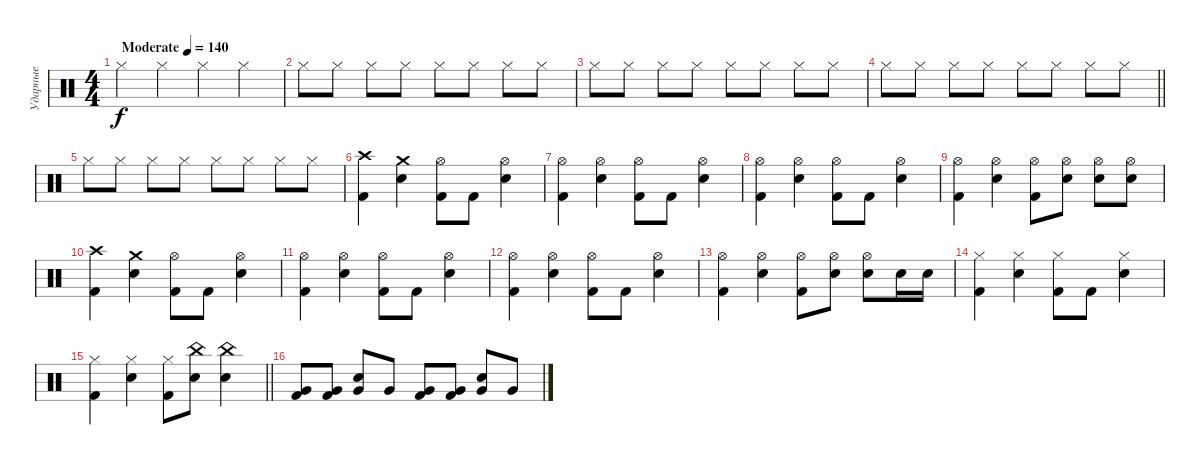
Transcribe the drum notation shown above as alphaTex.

\track ("Ударные" "Ударные") {instrument percussion}
\staff {score}
\articulation defaults
\ts (4 4)
\tempo (140 "Moderate")
\clef neutral
\ks c "Hi-Hat (closed)".4{dy f} "Hi-Hat (closed)".4 "Hi-Hat (closed)".4 "Hi-Hat (closed)".4
|
"Hi-Hat (closed)".8 "Hi-Hat (closed)".8 "Hi-Hat (closed)".8 "Hi-Hat (closed)".8 "Hi-Hat (closed)".8 "Hi-Hat (closed)".8 "Hi-Hat (closed)".8 "Hi-Hat (closed)".8 |
"Hi-Hat (closed)".8 "Hi-Hat (closed)".8 "Hi-Hat (closed)".8 "Hi-Hat (closed)".8 "Hi-Hat (closed)".8 "Hi-Hat (closed)".8 "Hi-Hat (closed)".8 "Hi-Hat (closed)".8 |
\barLineRight lightlight "Hi-Hat (closed)".8 "Hi-Hat (closed)".8 "Hi-Hat (closed)".8 "Hi-Hat (closed)".8 "Hi-Hat (closed)".8 "Hi-Hat (closed)".8 "Hi-Hat (closed)".8 "Hi-Hat (closed)".8
|
"Hi-Hat (closed)".8 "Hi-Hat (closed)".8 "Hi-Hat (closed)".8 "Hi-Hat (closed)".8 "Hi-Hat (closed)".8 "Hi-Hat (closed)".8 "Hi-Hat (closed)".8 "Hi-Hat (closed)".8 |
("Crash high (hit)" "Kick (hit) 2").4 ("Crash medium (hit)" "Electric Snare (hit)").4 ("Hi-Hat (open)" "Kick (hit) 2").8 "Kick (hit) 2".8 ("Hi-Hat (open)" "Electric Snare (hit)").4 |
("Hi-Hat (open)" "Kick (hit) 2").4 ("Hi-Hat (open)" "Electric Snare (hit)").4 ("Hi-Hat (open)" "Kick (hit) 2").8 "Kick (hit) 2".8 ("Hi-Hat (open)" "Electric Snare (hit)").4 |
("Hi-Hat (open)" "Kick (hit) 2").4 ("Hi-Hat (open)" "Electric Snare (hit)").4 ("Hi-Hat (open)" "Kick (hit) 2").8 "Kick (hit) 2".8 ("Hi-Hat (open)" "Electric Snare (hit)").4 |
("Hi-Hat (open)" "Kick (hit) 2").4 ("Hi-Hat (open)" "Electric Snare (hit)").4 ("Hi-Hat (open)" "Kick (hit) 2").8 ("Hi-Hat (open)" "Electric Snare (hit)").8 ("Hi-Hat (open)" "Electric Snare (hit)").8 ("Hi-Hat (open)" "Electric Snare (hit)").8 |
("Crash high (hit)" "Kick (hit) 2").4 ("Crash medium (hit)" "Electric Snare (hit)").4 ("Hi-Hat (open)" "Kick (hit) 2").8 "Kick (hit) 2".8 ("Hi-Hat (open)" "Electric Snare (hit)").4 |
("Hi-Hat (open)" "Kick (hit) 2").4 ("Hi-Hat (open)" "Electric Snare (hit)").4 ("Hi-Hat (open)" "Kick (hit) 2").8 "Kick (hit) 2".8 ("Hi-Hat (open)" "Electric Snare (hit)").4 |
("Hi-Hat (open)" "Kick (hit) 2").4 ("Hi-Hat (open)" "Electric Snare (hit)").4 ("Hi-Hat (open)" "Kick (hit) 2").8 "Kick (hit) 2".8 ("Hi-Hat (open)" "Electric Snare (hit)").4 |
("Hi-Hat (open)" "Kick (hit) 2").4 ("Hi-Hat (open)" "Electric Snare (hit)").4 ("Hi-Hat (open)" "Kick (hit) 2").8 ("Hi-Hat (open)" "Electric Snare (hit)").8 ("Hi-Hat (open)" "Electric Snare (hit)").8 "Electric Snare (hit)".16 "Electric Snare (hit)".16 |
("Hi-Hat (closed)" "Kick (hit) 2").4 ("Hi-Hat (closed)" "Electric Snare (hit)").4 ("Hi-Hat (closed)" "Kick (hit) 2").8 "Kick (hit) 2".8 ("Hi-Hat (closed)" "Electric Snare (hit)").4 |
\barLineRight lightlight
("Hi-Hat (closed)" "Kick (hit) 2").4 ("Hi-Hat (closed)" "Electric Snare (hit)").4 ("Hi-Hat (closed)" "Kick (hit) 2").8 ("China (hit)" "Electric Snare (hit)").8 ("China (hit)" "Electric Snare (hit)").4 |
("Very Low Tom (hit)" "Kick (hit) 2").8 ("Very Low Tom (hit)" "Kick (hit) 2").8 ("Very Low Tom (hit)" "Electric Snare (hit)").8 "Very Low Tom (hit)".8 ("Very Low Tom (hit)" "Kick (hit) 2").8 ("Very Low Tom (hit)" "Kick (hit) 2").8 ("Very Low Tom (hit)" "Electric Snare (hit)").8 "Very Low Tom (hit)".8
